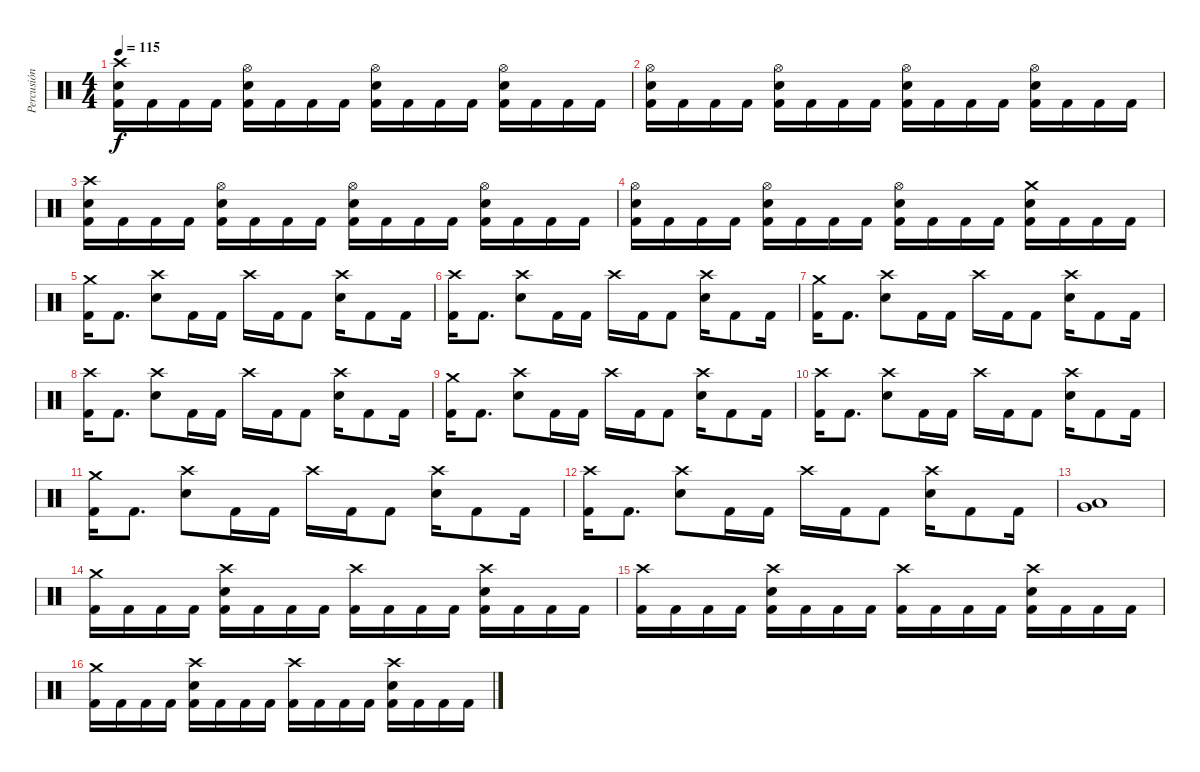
\track ("Percusión" "Percusión") {instrument percussion}
\staff {score}
\articulation defaults
\ts (4 4)
\tempo 115
\clef neutral
\ks c
("Crash high (hit)" "Snare (hit) 2" "Kick (hit) 2").16{dy f} "Kick (hit) 2".16 "Kick (hit) 2".16 "Kick (hit) 2".16 ("Hi-Hat (open)" "Snare (hit) 2" "Kick (hit) 2").16 "Kick (hit) 2".16 "Kick (hit) 2".16 "Kick (hit) 2".16 ("Hi-Hat (open)" "Snare (hit) 2" "Kick (hit) 2").16 "Kick (hit) 2".16 "Kick (hit) 2".16 "Kick (hit) 2".16 ("Hi-Hat (open)" "Snare (hit) 2" "Kick (hit) 2").16 "Kick (hit) 2".16 "Kick (hit) 2".16 "Kick (hit) 2".16 |
("Hi-Hat (open)" "Snare (hit) 2" "Kick (hit) 2").16 "Kick (hit) 2".16 "Kick (hit) 2".16 "Kick (hit) 2".16 ("Hi-Hat (open)" "Snare (hit) 2" "Kick (hit) 2").16 "Kick (hit) 2".16 "Kick (hit) 2".16 "Kick (hit) 2".16 ("Hi-Hat (open)" "Snare (hit) 2" "Kick (hit) 2").16 "Kick (hit) 2".16 "Kick (hit) 2".16 "Kick (hit) 2".16 ("Hi-Hat (open)" "Snare (hit) 2" "Kick (hit) 2").16 "Kick (hit) 2".16 "Kick (hit) 2".16 "Kick (hit) 2".16 |
("Crash high (hit)" "Snare (hit) 2" "Kick (hit) 2").16 "Kick (hit) 2".16 "Kick (hit) 2".16 "Kick (hit) 2".16 ("Hi-Hat (open)" "Snare (hit) 2" "Kick (hit) 2").16 "Kick (hit) 2".16 "Kick (hit) 2".16 "Kick (hit) 2".16 ("Hi-Hat (open)" "Snare (hit) 2" "Kick (hit) 2").16 "Kick (hit) 2".16 "Kick (hit) 2".16 "Kick (hit) 2".16 ("Hi-Hat (open)" "Snare (hit) 2" "Kick (hit) 2").16 "Kick (hit) 2".16 "Kick (hit) 2".16 "Kick (hit) 2".16 |
("Hi-Hat (open)" "Snare (hit) 2" "Kick (hit) 2").16 "Kick (hit) 2".16 "Kick (hit) 2".16 "Kick (hit) 2".16 ("Hi-Hat (open)" "Snare (hit) 2" "Kick (hit) 2").16 "Kick (hit) 2".16 "Kick (hit) 2".16 "Kick (hit) 2".16 ("Hi-Hat (open)" "Snare (hit) 2" "Kick (hit) 2").16 "Kick (hit) 2".16 "Kick (hit) 2".16 "Kick (hit) 2".16 ("Crash medium (hit)" "Snare (hit) 2" "Kick (hit) 2").16 "Kick (hit) 2".16 "Kick (hit) 2".16 "Kick (hit) 2".16 |
("Crash medium (hit)" "Kick (hit) 2").16 "Kick (hit) 2".8{d} ("Crash high (hit)" "Snare (hit) 2").8 "Kick (hit) 2".16 "Kick (hit) 2".16 "Crash high (hit)".16 "Kick (hit) 2".16 "Kick (hit) 2".8 ("Crash high (hit)" "Snare (hit) 2").16 "Kick (hit) 2".8 "Kick (hit) 2".16 |
("Crash high (hit)" "Kick (hit) 2").16 "Kick (hit) 2".8{d} ("Crash high (hit)" "Snare (hit) 2").8 "Kick (hit) 2".16 "Kick (hit) 2".16 "Crash high (hit)".16 "Kick (hit) 2".16 "Kick (hit) 2".8 ("Crash high (hit)" "Snare (hit) 2").16 "Kick (hit) 2".8 "Kick (hit) 2".16 |
("Crash medium (hit)" "Kick (hit) 2").16 "Kick (hit) 2".8{d} ("Crash high (hit)" "Snare (hit) 2").8 "Kick (hit) 2".16 "Kick (hit) 2".16 "Crash high (hit)".16 "Kick (hit) 2".16 "Kick (hit) 2".8 ("Crash high (hit)" "Snare (hit) 2").16 "Kick (hit) 2".8 "Kick (hit) 2".16 |
("Crash high (hit)" "Kick (hit) 2").16 "Kick (hit) 2".8{d} ("Crash high (hit)" "Snare (hit) 2").8 "Kick (hit) 2".16 "Kick (hit) 2".16 "Crash high (hit)".16 "Kick (hit) 2".16 "Kick (hit) 2".8 ("Crash high (hit)" "Snare (hit) 2").16 "Kick (hit) 2".8 "Kick (hit) 2".16 |
("Crash medium (hit)" "Kick (hit) 2").16 "Kick (hit) 2".8{d} ("Crash high (hit)" "Snare (hit) 2").8 "Kick (hit) 2".16 "Kick (hit) 2".16 "Crash high (hit)".16 "Kick (hit) 2".16 "Kick (hit) 2".8 ("Crash high (hit)" "Snare (hit) 2").16 "Kick (hit) 2".8 "Kick (hit) 2".16 |
("Crash high (hit)" "Kick (hit) 2").16 "Kick (hit) 2".8{d} ("Crash high (hit)" "Snare (hit) 2").8 "Kick (hit) 2".16 "Kick (hit) 2".16 "Crash high (hit)".16 "Kick (hit) 2".16 "Kick (hit) 2".8 ("Crash high (hit)" "Snare (hit) 2").16 "Kick (hit) 2".8 "Kick (hit) 2".16 |
("Crash medium (hit)" "Kick (hit) 2").16 "Kick (hit) 2".8{d} ("Crash high (hit)" "Snare (hit) 2").8 "Kick (hit) 2".16 "Kick (hit) 2".16 "Crash high (hit)".16 "Kick (hit) 2".16 "Kick (hit) 2".8 ("Crash high (hit)" "Snare (hit) 2").16 "Kick (hit) 2".8 "Kick (hit) 2".16 |
("Crash high (hit)" "Kick (hit) 2").16 "Kick (hit) 2".8{d} ("Crash high (hit)" "Snare (hit) 2").8 "Kick (hit) 2".16 "Kick (hit) 2".16 "Crash high (hit)".16 "Kick (hit) 2".16 "Kick (hit) 2".8 ("Crash high (hit)" "Snare (hit) 2").16 "Kick (hit) 2".8 "Kick (hit) 2".16 |
("Low Tom (hit)" "Very Low Tom (hit)").1 |
("Crash medium (hit)" "Kick (hit) 2").16 "Kick (hit) 2".16 "Kick (hit) 2".16 "Kick (hit) 2".16 ("Crash high (hit)" "Snare (hit) 2" "Kick (hit) 2").16 "Kick (hit) 2".16 "Kick (hit) 2".16 "Kick (hit) 2".16 ("Crash high (hit)" "Kick (hit) 2").16 "Kick (hit) 2".16 "Kick (hit) 2".16 "Kick (hit) 2".16 ("Crash high (hit)" "Snare (hit) 2" "Kick (hit) 2").16 "Kick (hit) 2".16 "Kick (hit) 2".16 "Kick (hit) 2".16 |
("Crash high (hit)" "Kick (hit) 2").16 "Kick (hit) 2".16 "Kick (hit) 2".16 "Kick (hit) 2".16 ("Crash high (hit)" "Snare (hit) 2" "Kick (hit) 2").16 "Kick (hit) 2".16 "Kick (hit) 2".16 "Kick (hit) 2".16 ("Crash high (hit)" "Kick (hit) 2").16 "Kick (hit) 2".16 "Kick (hit) 2".16 "Kick (hit) 2".16 ("Crash high (hit)" "Snare (hit) 2" "Kick (hit) 2").16 "Kick (hit) 2".16 "Kick (hit) 2".16 "Kick (hit) 2".16 |
("Crash medium (hit)" "Kick (hit) 2").16 "Kick (hit) 2".16 "Kick (hit) 2".16 "Kick (hit) 2".16 ("Crash high (hit)" "Snare (hit) 2" "Kick (hit) 2").16 "Kick (hit) 2".16 "Kick (hit) 2".16 "Kick (hit) 2".16 ("Crash high (hit)" "Kick (hit) 2").16 "Kick (hit) 2".16 "Kick (hit) 2".16 "Kick (hit) 2".16 ("Crash high (hit)" "Snare (hit) 2" "Kick (hit) 2").16 "Kick (hit) 2".16 "Kick (hit) 2".16 "Kick (hit) 2".16
